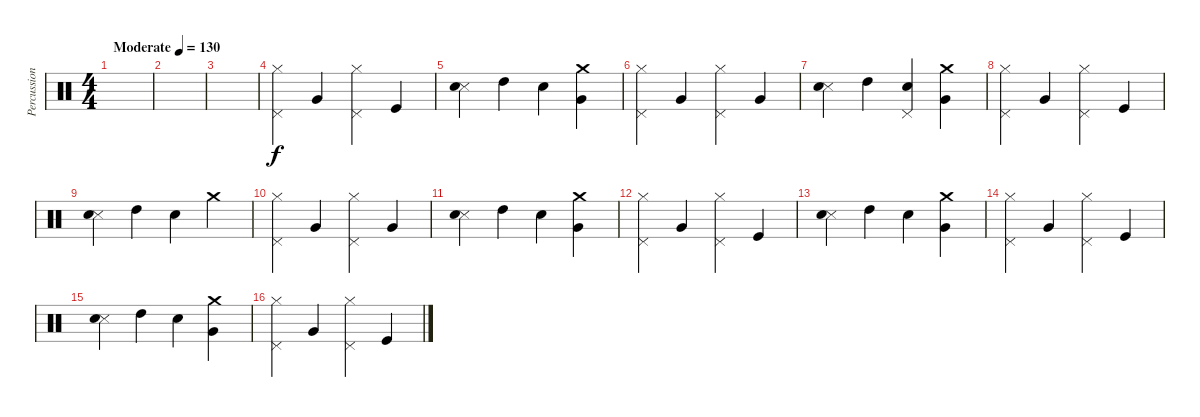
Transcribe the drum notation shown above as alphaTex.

\track ("Percussions" "Percussion") {instrument percussion}
\staff {score}
\articulation defaults
\ts (4 4)
\tempo (130 "Moderate")
\clef neutral
\ks c
|
|
|
("Hi-Hat (closed)" "Pedal Hi-Hat (hit)").4 "Very Low Tom (hit)".4 ("Hi-Hat (closed)" "Pedal Hi-Hat (hit)").4 "Kick (hit)".4 |
("Snare (side stick) 3" "Snare (hit) 2").4 "High Tom (hit)".4 "Electric Snare (hit)".4 ("Crash medium (hit)" "Very Low Tom (hit)").4 |
("Hi-Hat (closed)" "Pedal Hi-Hat (hit)").4 "Very Low Tom (hit)".4 ("Hi-Hat (closed)" "Pedal Hi-Hat (hit)").4 "Very Low Tom (hit)".4 |
("Snare (side stick) 3" "Snare (hit) 2").4 "High Tom (hit)".4 ("Electric Snare (hit)" "Pedal Hi-Hat (hit)").4 ("Crash medium (hit)" "Very Low Tom (hit)").4 |
("Hi-Hat (closed)" "Pedal Hi-Hat (hit)").4 "Very Low Tom (hit)".4 ("Hi-Hat (closed)" "Pedal Hi-Hat (hit)").4 "Kick (hit)".4 |
("Snare (side stick) 3" "Snare (hit) 2").4 "High Tom (hit)".4 "Electric Snare (hit)".4 "Crash medium (hit)".4 |
("Hi-Hat (closed)" "Pedal Hi-Hat (hit)").4 "Very Low Tom (hit)".4 ("Hi-Hat (closed)" "Pedal Hi-Hat (hit)").4 "Very Low Tom (hit)".4 |
("Snare (side stick) 3" "Snare (hit) 2").4 "High Tom (hit)".4 "Electric Snare (hit)".4 ("Crash medium (hit)" "Very Low Tom (hit)").4 |
("Hi-Hat (closed)" "Pedal Hi-Hat (hit)").4 "Very Low Tom (hit)".4 ("Hi-Hat (closed)" "Pedal Hi-Hat (hit)").4 "Kick (hit)".4 |
("Snare (side stick) 3" "Snare (hit) 2").4 "High Tom (hit)".4 "Electric Snare (hit)".4 ("Crash medium (hit)" "Very Low Tom (hit)").4 |
("Hi-Hat (closed)" "Pedal Hi-Hat (hit)").4 "Very Low Tom (hit)".4 ("Hi-Hat (closed)" "Pedal Hi-Hat (hit)").4 "Kick (hit)".4 |
("Snare (side stick) 3" "Snare (hit) 2").4 "High Tom (hit)".4 "Electric Snare (hit)".4 ("Crash medium (hit)" "Very Low Tom (hit)").4 |
("Hi-Hat (closed)" "Pedal Hi-Hat (hit)").4 "Very Low Tom (hit)".4 ("Hi-Hat (closed)" "Pedal Hi-Hat (hit)").4 "Kick (hit)".4
